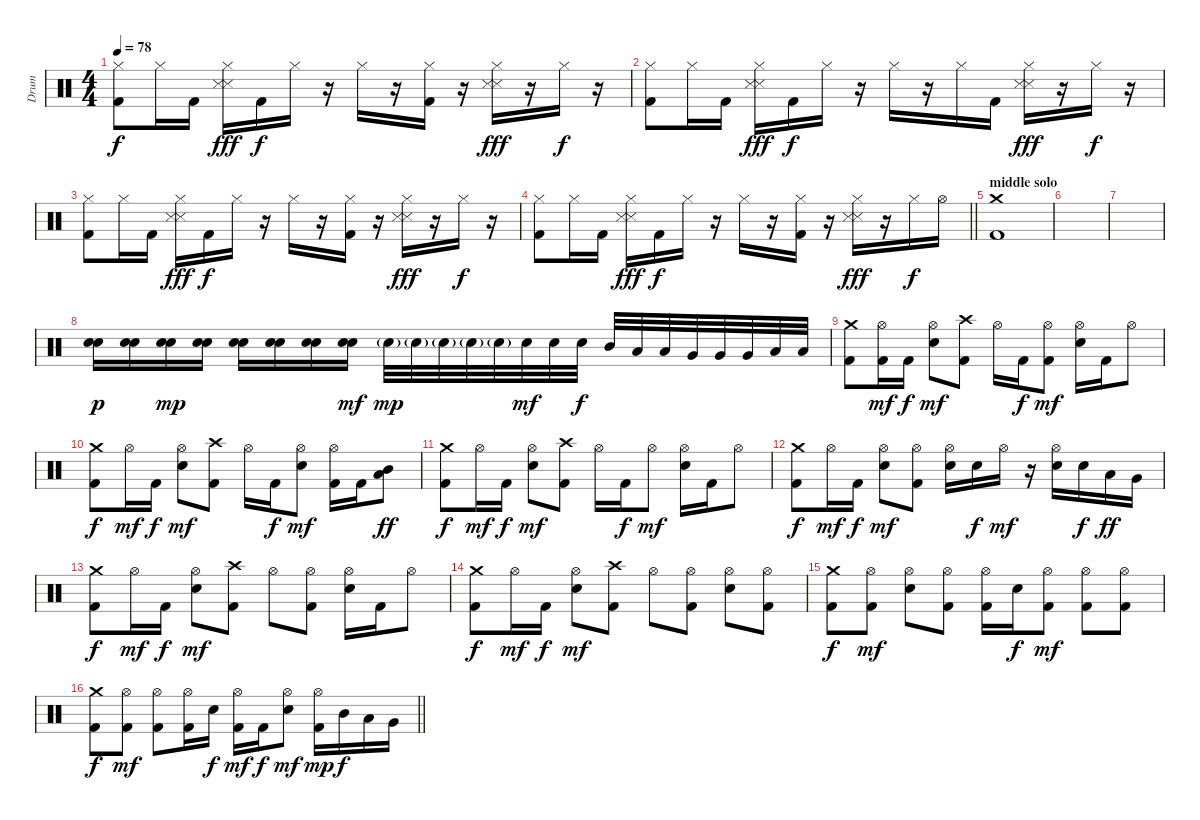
\track ("Drum" "Drum") {instrument percussion}
\staff {score}
\articulation defaults
\ts (4 4)
\tempo 78
\clef neutral
\ks c
("Hi-Hat (closed)" "Kick (hit) 2").8{dy f} "Hi-Hat (closed)".16 "Kick (hit) 2".16 ("Hi-Hat (closed)" "Snare (side stick) 3" "Snare (side stick) 3").16{dy fff} "Kick (hit) 2".16{dy f} "Hi-Hat (closed)".16 r.16 "Hi-Hat (closed)".16 r.16 ("Hi-Hat (closed)" "Kick (hit) 2").16 r.16 ("Hi-Hat (closed)" "Snare (side stick) 3" "Snare (side stick) 3").16{dy fff} r.16 "Hi-Hat (closed)".16{dy f} r.16 |
("Hi-Hat (closed)" "Kick (hit) 2").8 "Hi-Hat (closed)".16 "Kick (hit) 2".16 ("Hi-Hat (closed)" "Snare (side stick) 3" "Snare (side stick) 3").16{dy fff} "Kick (hit) 2".16{dy f} "Hi-Hat (closed)".16 r.16 "Hi-Hat (closed)".16 r.16 "Hi-Hat (closed)".16 "Kick (hit) 2".16 ("Hi-Hat (closed)" "Snare (side stick) 3" "Snare (side stick) 3").16{dy fff} r.16 "Hi-Hat (closed)".16{dy f} r.16 |
("Hi-Hat (closed)" "Kick (hit) 2").8 "Hi-Hat (closed)".16 "Kick (hit) 2".16 ("Hi-Hat (closed)" "Snare (side stick) 3" "Snare (side stick) 3").16{dy fff} "Kick (hit) 2".16{dy f} "Hi-Hat (closed)".16 r.16 "Hi-Hat (closed)".16 r.16 ("Hi-Hat (closed)" "Kick (hit) 2").16 r.16 ("Hi-Hat (closed)" "Snare (side stick) 3" "Snare (side stick) 3").16{dy fff} r.16 "Hi-Hat (closed)".16{dy f} r.16 |
\barLineRight lightlight
("Hi-Hat (closed)" "Kick (hit) 2").8 "Hi-Hat (closed)".16 "Kick (hit) 2".16 ("Hi-Hat (closed)" "Snare (side stick) 3" "Snare (side stick) 3").16{dy fff} "Kick (hit) 2".16{dy f} "Hi-Hat (closed)".16 r.16 "Hi-Hat (closed)".16 r.16 ("Hi-Hat (closed)" "Kick (hit) 2").16 r.16 ("Hi-Hat (closed)" "Snare (side stick) 3" "Snare (side stick) 3").16{dy fff} r.16 "Hi-Hat (closed)".16{dy f} "Hi-Hat (open)".16 |
\section ("" "middle solo")
("Crash medium (hit)" "Kick (hit) 2").1 |
|
|
("Snare (hit) 2" "Snare (hit) 2").16{dy p} ("Snare (hit) 2" "Snare (hit) 2").16 ("Snare (hit) 2" "Snare (hit) 2").16{dy mp} ("Snare (hit) 2" "Snare (hit) 2").16 ("Snare (hit) 2" "Snare (hit) 2").16 ("Snare (hit) 2" "Snare (hit) 2").16 ("Snare (hit) 2" "Snare (hit) 2").16 ("Snare (hit) 2" "Snare (hit) 2").16{dy mf} "Snare (hit) 2"{g}.32{dy mp} "Snare (hit) 2"{g}.32 "Snare (hit) 2"{g}.32 "Snare (hit) 2"{g}.32 "Snare (hit) 2"{g}.32 "Snare (hit) 2".32{dy mf} "Snare (hit) 2".32 "Snare (hit) 2".32{dy f} "Mid Tom (hit)".32 "Low Tom (hit)".32 "Low Tom (hit)".32 "Very Low Tom (hit)".32 "Very Low Tom (hit)".32 "Very Low Tom (hit)".32 "Low Floor Tom (hit)".32 "Low Floor Tom (hit)".32 |
("Crash medium (hit)" "Kick (hit) 2").8 ("Hi-Hat (open)" "Kick (hit) 2").16{dy mf} "Kick (hit) 2".16{dy f} ("Hi-Hat (open)" "Snare (hit) 2").8{dy mf} ("Crash high (hit)" "Kick (hit) 2").8 "Hi-Hat (open)".16 "Kick (hit) 2".16{dy f} ("Hi-Hat (open)" "Kick (hit) 2").8{dy mf} ("Hi-Hat (open)" "Snare (hit) 2").16 "Kick (hit) 2".16 "Hi-Hat (open)".8 |
("Crash medium (hit)" "Kick (hit) 2").8{dy f} "Hi-Hat (open)".16{dy mf} "Kick (hit) 2".16{dy f} ("Hi-Hat (open)" "Snare (hit) 2").8{dy mf} ("Crash high (hit)" "Kick (hit) 2").8 "Hi-Hat (open)".16 "Kick (hit) 2".16{dy f} ("Hi-Hat (open)" "Snare (hit) 2").8{dy mf} ("Hi-Hat (open)" "Kick (hit) 2").16 "Kick (hit) 2".16 ("Mid Tom (hit)" "Low Tom (hit)").8{dy ff} |
("Crash medium (hit)" "Kick (hit) 2").8{dy f} "Hi-Hat (open)".16{dy mf} "Kick (hit) 2".16{dy f} ("Hi-Hat (open)" "Snare (hit) 2").8{dy mf} ("Crash high (hit)" "Kick (hit) 2").8 "Hi-Hat (open)".16 "Kick (hit) 2".16{dy f} "Hi-Hat (open)".8{dy mf} ("Hi-Hat (open)" "Snare (hit) 2").16 "Kick (hit) 2".16 "Hi-Hat (open)".8 |
("Crash medium (hit)" "Kick (hit) 2").8{dy f} "Hi-Hat (open)".16{dy mf} "Kick (hit) 2".16{dy f} ("Hi-Hat (open)" "Snare (hit) 2").8{dy mf} ("Hi-Hat (open)" "Kick (hit) 2").8 ("Hi-Hat (open)" "Snare (hit) 2").16 "Snare (hit) 2".16{dy f} "Hi-Hat (open)".16{dy mf} r.16 ("Hi-Hat (open)" "Snare (hit) 2").16 "Snare (hit) 2".16{dy f} "Low Tom (hit)".16{dy ff} "Very Low Tom (hit)".16 |
("Crash medium (hit)" "Kick (hit) 2").8{dy f} "Hi-Hat (open)".16{dy mf} "Kick (hit) 2".16{dy f} ("Hi-Hat (open)" "Snare (hit) 2").8{dy mf} ("Crash high (hit)" "Kick (hit) 2").8 "Hi-Hat (open)".8 ("Hi-Hat (open)" "Kick (hit) 2").8 ("Hi-Hat (open)" "Snare (hit) 2").16 "Kick (hit) 2".16 "Hi-Hat (open)".8 |
("Crash medium (hit)" "Kick (hit) 2").8{dy f} "Hi-Hat (open)".16{dy mf} "Kick (hit) 2".16{dy f} ("Hi-Hat (open)" "Snare (hit) 2").8{dy mf} ("Crash high (hit)" "Kick (hit) 2").8 "Hi-Hat (open)".8 ("Hi-Hat (open)" "Kick (hit) 2").8 ("Hi-Hat (open)" "Snare (hit) 2").8 ("Hi-Hat (open)" "Kick (hit) 2").8 |
("Crash medium (hit)" "Kick (hit) 2").8{dy f} ("Hi-Hat (open)" "Kick (hit) 2").8{dy mf} ("Hi-Hat (open)" "Snare (hit) 2").8 ("Hi-Hat (open)" "Kick (hit) 2").8 ("Hi-Hat (open)" "Kick (hit) 2").16 "Snare (hit) 2".16{dy f} ("Hi-Hat (open)" "Kick (hit) 2").8{dy mf} ("Hi-Hat (open)" "Kick (hit) 2").8 ("Hi-Hat (open)" "Kick (hit) 2").8 |
\barLineRight lightlight
("Crash medium (hit)" "Kick (hit) 2").8{dy f} ("Hi-Hat (open)" "Kick (hit) 2").8{dy mf} ("Hi-Hat (open)" "Kick (hit) 2").8 ("Hi-Hat (open)" "Kick (hit) 2").16 "Snare (hit) 2".16{dy f} ("Hi-Hat (open)" "Kick (hit) 2").16{dy mf} "Kick (hit) 2".16{dy f} ("Hi-Hat (open)" "Snare (hit) 2").8{dy mf} ("Hi-Hat (open)" "Kick (hit) 2").16{dy mp} "Mid Tom (hit)".16{dy f} "Low Tom (hit)".16 "Very Low Tom (hit)".16
